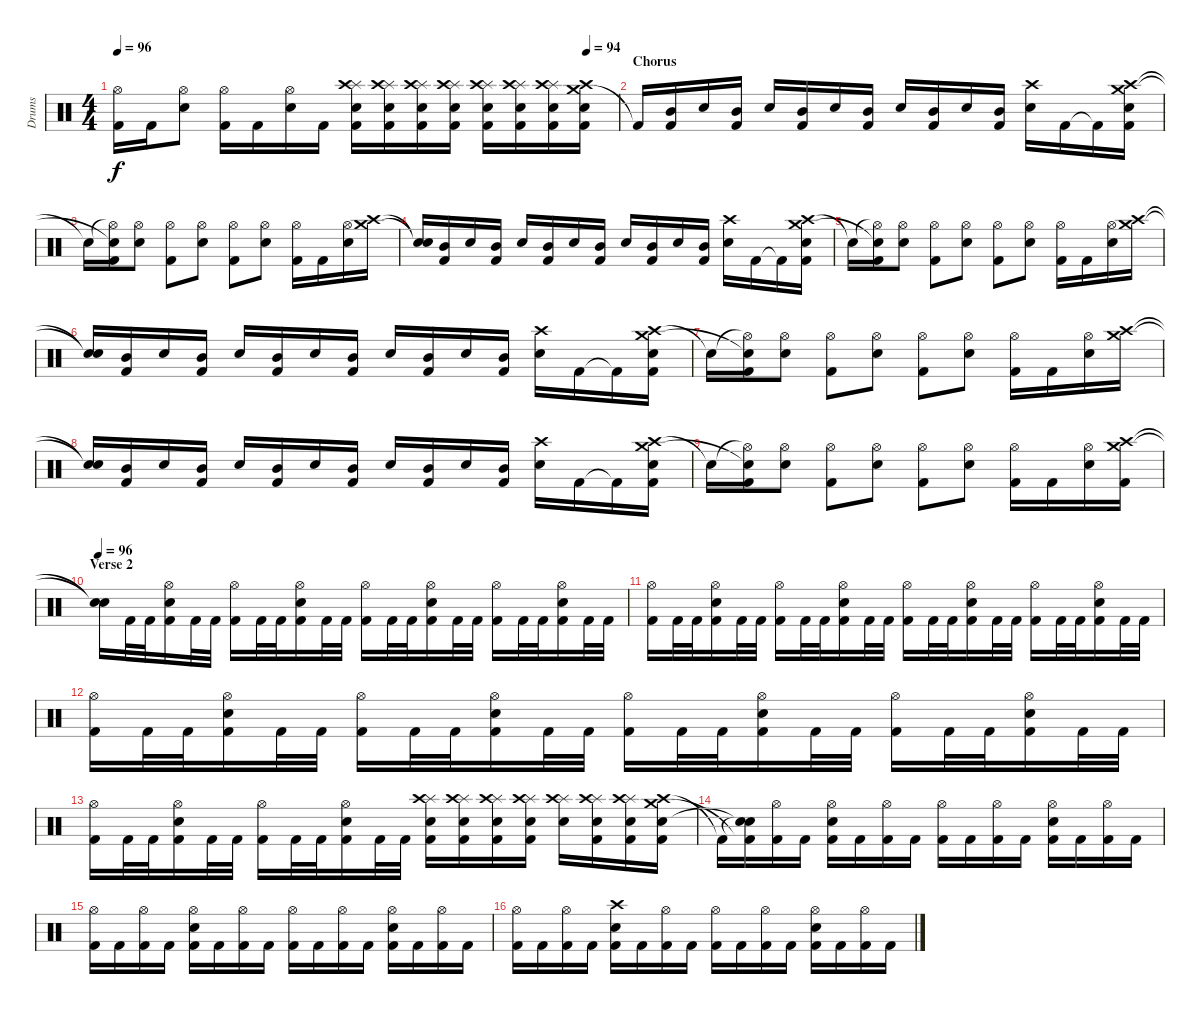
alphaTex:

\track ("Drums" "Drums") {instrument percussion}
\staff {score}
\articulation defaults
\ts (4 4)
\tempo 96
\tempo (94 0.9375)
\clef neutral
\ks c
("Hi-Hat (open)" "Kick (hit) 2"{t}).16{dy f} "Kick (hit) 2".16 ("Hi-Hat (open)" "Electric Snare (hit)").8 ("Hi-Hat (open)" "Kick (hit) 2").16 "Kick (hit) 2".16 ("Hi-Hat (open)" "Electric Snare (hit)").16 "Kick (hit) 2".16 ("Splash (hit)" "Crash high (hit)" "Electric Snare (hit)" "Kick (hit) 2").16 ("Splash (hit)" "Crash high (hit)" "Electric Snare (hit)" "Kick (hit) 2").16 ("Splash (hit)" "Crash high (hit)" "Electric Snare (hit)" "Kick (hit) 2").16 ("Splash (hit)" "Crash high (hit)" "Electric Snare (hit)" "Kick (hit) 2").16 ("Splash (hit)" "Crash high (hit)" "Electric Snare (hit)" "Kick (hit) 2").16 ("Splash (hit)" "Crash high (hit)" "Electric Snare (hit)" "Kick (hit) 2").16 ("Splash (hit)" "Crash high (hit)" "Electric Snare (hit)" "Kick (hit) 2").16 ("Crash medium (hit)" "Crash high (hit)" "Electric Snare (hit)" "Kick (hit) 2").16 |
\section ("" "Chorus")
"Kick (hit) 2"{t}.16 ("Mid Tom (hit)" "Kick (hit) 2").16 "Electric Snare (hit)".16 ("Mid Tom (hit)" "Kick (hit) 2").16 "Electric Snare (hit)".16 ("Mid Tom (hit)" "Kick (hit) 2").16 "Electric Snare (hit)".16 ("Mid Tom (hit)" "Kick (hit) 2").16 "Electric Snare (hit)".16 ("Mid Tom (hit)" "Kick (hit) 2").16 "Electric Snare (hit)".16 ("Mid Tom (hit)" "Kick (hit) 2").16 ("Crash high (hit)" "Electric Snare (hit)").16 "Kick (hit) 2".16 "Kick (hit) 2"{t}.16 ("Crash high (hit)" "Crash medium (hit)" "Electric Snare (hit)" "Kick (hit) 2").16 |
"Snare (hit)"{t}.16 ("Hi-Hat (open)"{t} "Snare (hit)"{t} "Kick (hit) 2").16 ("Hi-Hat (open)" "Electric Snare (hit)").8 ("Hi-Hat (open)" "Kick (hit) 2").8 ("Hi-Hat (open)" "Electric Snare (hit)").8 ("Hi-Hat (open)" "Kick (hit) 2").8 ("Hi-Hat (open)" "Electric Snare (hit)").8 ("Hi-Hat (open)" "Kick (hit) 2").16 "Kick (hit) 2".16 ("Hi-Hat (open)" "Electric Snare (hit)").16 ("Crash high (hit)" "Crash medium (hit)").16 |
("Snare (hit)"{t} "Snare (hit)"{t}).16 ("Mid Tom (hit)" "Kick (hit) 2").16 "Electric Snare (hit)".16 ("Mid Tom (hit)" "Kick (hit) 2").16 "Electric Snare (hit)".16 ("Mid Tom (hit)" "Kick (hit) 2").16 "Electric Snare (hit)".16 ("Mid Tom (hit)" "Kick (hit) 2").16 "Electric Snare (hit)".16 ("Mid Tom (hit)" "Kick (hit) 2").16 "Electric Snare (hit)".16 ("Mid Tom (hit)" "Kick (hit) 2").16 ("Crash high (hit)" "Electric Snare (hit)").16 "Kick (hit) 2".16 "Kick (hit) 2"{t}.16 ("Crash high (hit)" "Crash medium (hit)" "Electric Snare (hit)" "Kick (hit) 2").16 |
"Snare (hit)"{t}.16 ("Hi-Hat (open)"{t} "Snare (hit)"{t} "Kick (hit) 2").16 ("Hi-Hat (open)" "Electric Snare (hit)").8 ("Hi-Hat (open)" "Kick (hit) 2").8 ("Hi-Hat (open)" "Electric Snare (hit)").8 ("Hi-Hat (open)" "Kick (hit) 2").8 ("Hi-Hat (open)" "Electric Snare (hit)").8 ("Hi-Hat (open)" "Kick (hit) 2").16 "Kick (hit) 2".16 ("Hi-Hat (open)" "Electric Snare (hit)").16 ("Crash high (hit)" "Crash medium (hit)").16 |
("Snare (hit)"{t} "Snare (hit)"{t}).16 ("Mid Tom (hit)" "Kick (hit) 2").16 "Electric Snare (hit)".16 ("Mid Tom (hit)" "Kick (hit) 2").16 "Electric Snare (hit)".16 ("Mid Tom (hit)" "Kick (hit) 2").16 "Electric Snare (hit)".16 ("Mid Tom (hit)" "Kick (hit) 2").16 "Electric Snare (hit)".16 ("Mid Tom (hit)" "Kick (hit) 2").16 "Electric Snare (hit)".16 ("Mid Tom (hit)" "Kick (hit) 2").16 ("Crash high (hit)" "Electric Snare (hit)").16 "Kick (hit) 2".16 "Kick (hit) 2"{t}.16 ("Crash high (hit)" "Crash medium (hit)" "Electric Snare (hit)" "Kick (hit) 2").16 |
"Snare (hit)"{t}.16 ("Hi-Hat (open)"{t} "Snare (hit)"{t} "Kick (hit) 2").16 ("Hi-Hat (open)" "Electric Snare (hit)").8 ("Hi-Hat (open)" "Kick (hit) 2").8 ("Hi-Hat (open)" "Electric Snare (hit)").8 ("Hi-Hat (open)" "Kick (hit) 2").8 ("Hi-Hat (open)" "Electric Snare (hit)").8 ("Hi-Hat (open)" "Kick (hit) 2").16 "Kick (hit) 2".16 ("Hi-Hat (open)" "Electric Snare (hit)").16 ("Crash high (hit)" "Crash medium (hit)").16 |
("Snare (hit)"{t} "Snare (hit)"{t}).16 ("Mid Tom (hit)" "Kick (hit) 2").16 "Electric Snare (hit)".16 ("Mid Tom (hit)" "Kick (hit) 2").16 "Electric Snare (hit)".16 ("Mid Tom (hit)" "Kick (hit) 2").16 "Electric Snare (hit)".16 ("Mid Tom (hit)" "Kick (hit) 2").16 "Electric Snare (hit)".16 ("Mid Tom (hit)" "Kick (hit) 2").16 "Electric Snare (hit)".16 ("Mid Tom (hit)" "Kick (hit) 2").16 ("Crash high (hit)" "Electric Snare (hit)").16 "Kick (hit) 2".16 "Kick (hit) 2"{t}.16 ("Crash high (hit)" "Crash medium (hit)" "Electric Snare (hit)" "Kick (hit) 2").16 |
"Snare (hit)"{t}.16 ("Hi-Hat (open)"{t} "Snare (hit)"{t} "Kick (hit) 2").16 ("Hi-Hat (open)" "Electric Snare (hit)").8 ("Hi-Hat (open)" "Kick (hit) 2").8 ("Hi-Hat (open)" "Electric Snare (hit)").8 ("Hi-Hat (open)" "Kick (hit) 2").8 ("Hi-Hat (open)" "Electric Snare (hit)").8 ("Hi-Hat (open)" "Kick (hit) 2").16 "Kick (hit) 2".16 ("Hi-Hat (open)" "Electric Snare (hit)").16 ("Crash high (hit)" "Crash medium (hit)" "Kick (hit) 2").16 |
\section ("" "Verse 2")
\tempo 96
("Snare (hit)"{t} "Snare (hit)"{t}).16 "Kick (hit) 2".32 "Kick (hit) 2".32 ("Hi-Hat (open)" "Electric Snare (hit)" "Kick (hit) 2").16 "Kick (hit) 2".32 "Kick (hit) 2".32 ("Hi-Hat (open)" "Kick (hit) 2").16 "Kick (hit) 2".32 "Kick (hit) 2".32 ("Hi-Hat (open)" "Electric Snare (hit)" "Kick (hit) 2").16 "Kick (hit) 2".32 "Kick (hit) 2".32 ("Hi-Hat (open)" "Kick (hit) 2").16 "Kick (hit) 2".32 "Kick (hit) 2".32 ("Hi-Hat (open)" "Electric Snare (hit)" "Kick (hit) 2").16 "Kick (hit) 2".32 "Kick (hit) 2".32 ("Hi-Hat (open)" "Kick (hit) 2").16 "Kick (hit) 2".32 "Kick (hit) 2".32 ("Hi-Hat (open)" "Electric Snare (hit)" "Kick (hit) 2").16 "Kick (hit) 2".32 "Kick (hit) 2".32 |
("Hi-Hat (open)" "Kick (hit) 2").16 "Kick (hit) 2".32 "Kick (hit) 2".32 ("Hi-Hat (open)" "Electric Snare (hit)" "Kick (hit) 2").16 "Kick (hit) 2".32 "Kick (hit) 2".32 ("Hi-Hat (open)" "Kick (hit) 2").16 "Kick (hit) 2".32 "Kick (hit) 2".32 ("Hi-Hat (open)" "Electric Snare (hit)" "Kick (hit) 2").16 "Kick (hit) 2".32 "Kick (hit) 2".32 ("Hi-Hat (open)" "Kick (hit) 2").16 "Kick (hit) 2".32 "Kick (hit) 2".32 ("Hi-Hat (open)" "Electric Snare (hit)" "Kick (hit) 2").16 "Kick (hit) 2".32 "Kick (hit) 2".32 ("Hi-Hat (open)" "Kick (hit) 2").16 "Kick (hit) 2".32 "Kick (hit) 2".32 ("Hi-Hat (open)" "Electric Snare (hit)" "Kick (hit) 2").16 "Kick (hit) 2".32 "Kick (hit) 2".32 |
("Hi-Hat (open)" "Kick (hit) 2").16 "Kick (hit) 2".32 "Kick (hit) 2".32 ("Hi-Hat (open)" "Electric Snare (hit)" "Kick (hit) 2").16 "Kick (hit) 2".32 "Kick (hit) 2".32 ("Hi-Hat (open)" "Kick (hit) 2").16 "Kick (hit) 2".32 "Kick (hit) 2".32 ("Hi-Hat (open)" "Electric Snare (hit)" "Kick (hit) 2").16 "Kick (hit) 2".32 "Kick (hit) 2".32 ("Hi-Hat (open)" "Kick (hit) 2").16 "Kick (hit) 2".32 "Kick (hit) 2".32 ("Hi-Hat (open)" "Electric Snare (hit)" "Kick (hit) 2").16 "Kick (hit) 2".32 "Kick (hit) 2".32 ("Hi-Hat (open)" "Kick (hit) 2").16 "Kick (hit) 2".32 "Kick (hit) 2".32 ("Hi-Hat (open)" "Electric Snare (hit)" "Kick (hit) 2").16 "Kick (hit) 2".32 "Kick (hit) 2".32 |
("Hi-Hat (open)" "Kick (hit) 2").16 "Kick (hit) 2".32 "Kick (hit) 2".32 ("Hi-Hat (open)" "Electric Snare (hit)" "Kick (hit) 2").16 "Kick (hit) 2".32 "Kick (hit) 2".32 ("Hi-Hat (open)" "Kick (hit) 2").16 "Kick (hit) 2".32 "Kick (hit) 2".32 ("Hi-Hat (open)" "Electric Snare (hit)" "Kick (hit) 2").16 "Kick (hit) 2".32 "Kick (hit) 2".32 ("Splash (hit)" "Electric Snare (hit)" "Crash high (hit)" "Kick (hit) 2").16 ("Splash (hit)" "Electric Snare (hit)" "Crash high (hit)" "Kick (hit) 2").16 ("Splash (hit)" "Electric Snare (hit)" "Crash high (hit)" "Kick (hit) 2").16 ("Splash (hit)" "Electric Snare (hit)" "Crash high (hit)" "Kick (hit) 2").16 ("Splash (hit)" "Electric Snare (hit)" "Crash high (hit)").16 ("Splash (hit)" "Electric Snare (hit)" "Crash high (hit)" "Kick (hit) 2").16 ("Splash (hit)" "Electric Snare (hit)" "Crash high (hit)" "Kick (hit) 2").16 ("Crash high (hit)" "Electric Snare (hit)" "Crash medium (hit)" "Kick (hit) 2").16 |
"Kick (hit) 2"{t}.16 ("Snare (hit)"{t} "Snare (hit)"{t} "Kick (hit) 2"{t}).16 ("Hi-Hat (open)" "Kick (hit) 2").16 "Kick (hit) 2".16 ("Hi-Hat (open)" "Electric Snare (hit)" "Kick (hit) 2").16 "Kick (hit) 2".16 ("Hi-Hat (open)" "Kick (hit) 2").16 "Kick (hit) 2".16 ("Hi-Hat (open)" "Kick (hit) 2").16 "Kick (hit) 2".16 ("Hi-Hat (open)" "Kick (hit) 2").16 "Kick (hit) 2".16 ("Hi-Hat (open)" "Electric Snare (hit)" "Kick (hit) 2").16 "Kick (hit) 2".16 ("Hi-Hat (open)" "Kick (hit) 2").16 "Kick (hit) 2".16 |
("Hi-Hat (open)" "Kick (hit) 2").16 "Kick (hit) 2".16 ("Hi-Hat (open)" "Kick (hit) 2").16 "Kick (hit) 2".16 ("Hi-Hat (open)" "Electric Snare (hit)" "Kick (hit) 2").16 "Kick (hit) 2".16 ("Hi-Hat (open)" "Kick (hit) 2").16 "Kick (hit) 2".16 ("Hi-Hat (open)" "Kick (hit) 2").16 "Kick (hit) 2".16 ("Hi-Hat (open)" "Kick (hit) 2").16 "Kick (hit) 2".16 ("Hi-Hat (open)" "Electric Snare (hit)" "Kick (hit) 2").16 "Kick (hit) 2".16 ("Hi-Hat (open)" "Kick (hit) 2").16 "Kick (hit) 2".16 |
("Hi-Hat (open)" "Kick (hit) 2").16 "Kick (hit) 2".16 ("Hi-Hat (open)" "Kick (hit) 2").16 "Kick (hit) 2".16 ("Crash high (hit)" "Electric Snare (hit)" "Kick (hit) 2").16 "Kick (hit) 2".16 ("Hi-Hat (open)" "Kick (hit) 2").16 "Kick (hit) 2".16 ("Hi-Hat (open)" "Kick (hit) 2").16 "Kick (hit) 2".16 ("Hi-Hat (open)" "Kick (hit) 2").16 "Kick (hit) 2".16 ("Hi-Hat (open)" "Electric Snare (hit)" "Kick (hit) 2").16 "Kick (hit) 2".16 ("Hi-Hat (open)" "Kick (hit) 2").16 "Kick (hit) 2".16
